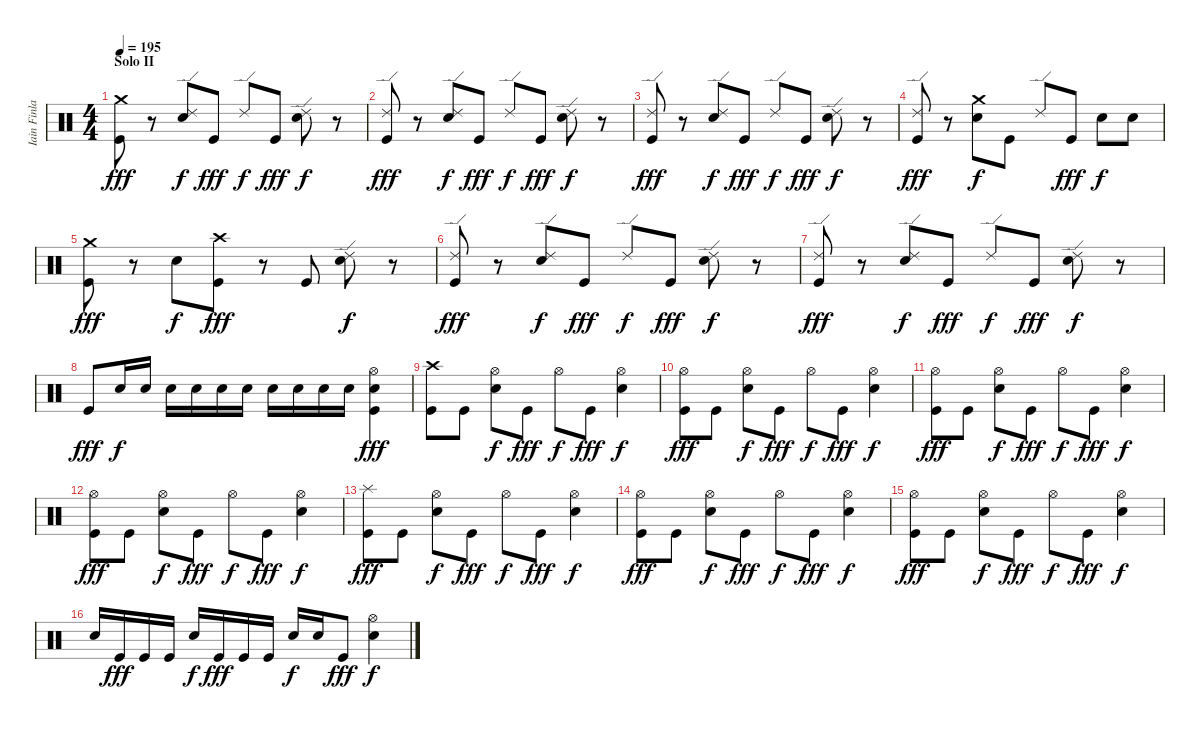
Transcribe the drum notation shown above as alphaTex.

\track ("Iain Finlay (Batería)" "Iain Finla") {instrument percussion}
\staff {score}
\articulation defaults
\ts (4 4)
\section ("" "Solo II")
\tempo 195
\clef neutral
\ks c
("Crash medium (hit)" "Kick (hit)").8{dy fff} r.8 ("Ride (edge) 2" "Electric Snare (hit)").8{dy f} "Kick (hit)".8{dy fff} "Ride (edge) 2".8{dy f} "Kick (hit)".8{dy fff} ("Ride (edge) 2" "Electric Snare (hit)").8{dy f} r.8 |
("Ride (edge) 2" "Kick (hit)").8{dy fff} r.8 ("Ride (edge) 2" "Electric Snare (hit)").8{dy f} "Kick (hit)".8{dy fff} "Ride (edge) 2".8{dy f} "Kick (hit)".8{dy fff} ("Ride (edge) 2" "Electric Snare (hit)").8{dy f} r.8 |
("Ride (edge) 2" "Kick (hit)").8{dy fff} r.8 ("Ride (edge) 2" "Electric Snare (hit)").8{dy f} "Kick (hit)".8{dy fff} "Ride (edge) 2".8{dy f} "Kick (hit)".8{dy fff} ("Ride (edge) 2" "Electric Snare (hit)").8{dy f} r.8 |
("Ride (edge) 2" "Kick (hit)").8{dy fff} r.8 ("Crash medium (hit)" "Electric Snare (hit)").8{dy f} "Kick (hit)".8 "Ride (edge) 2".8 "Kick (hit)".8{dy fff} "Electric Snare (hit)".8{dy f} "Electric Snare (hit)".8 |
("Crash medium (hit)" "Kick (hit)").8{dy fff} r.8 "Electric Snare (hit)".8{dy f} ("Crash high (hit)" "Kick (hit)").8{dy fff} r.8 "Kick (hit)".8 ("Ride (edge) 2" "Electric Snare (hit)").8{dy f} r.8 |
("Ride (edge) 2" "Kick (hit)").8{dy fff} r.8 ("Ride (edge) 2" "Electric Snare (hit)").8{dy f} "Kick (hit)".8{dy fff} "Ride (edge) 2".8{dy f} "Kick (hit)".8{dy fff} ("Ride (edge) 2" "Electric Snare (hit)").8{dy f} r.8 |
("Ride (edge) 2" "Kick (hit)").8{dy fff} r.8 ("Ride (edge) 2" "Electric Snare (hit)").8{dy f} "Kick (hit)".8{dy fff} "Ride (edge) 2".8{dy f} "Kick (hit)".8{dy fff} ("Ride (edge) 2" "Electric Snare (hit)").8{dy f} r.8 |
"Kick (hit)".8{dy fff} "Electric Snare (hit)".16{dy f} "Electric Snare (hit)".16 "Electric Snare (hit)".16 "Electric Snare (hit)".16 "Electric Snare (hit)".16 "Electric Snare (hit)".16 "Electric Snare (hit)".16 "Electric Snare (hit)".16 "Electric Snare (hit)".16 "Electric Snare (hit)".16 ("Hi-Hat (open)" "Electric Snare (hit)" "Kick (hit)").4{dy fff} |
("Crash high (hit)" "Kick (hit)").8 "Kick (hit)".8 ("Hi-Hat (open)" "Electric Snare (hit)").8{dy f} "Kick (hit)".8{dy fff} "Hi-Hat (open)".8{dy f} "Kick (hit)".8{dy fff} ("Hi-Hat (open)" "Electric Snare (hit)").4{dy f} |
("Hi-Hat (open)" "Kick (hit)").8{dy fff} "Kick (hit)".8 ("Hi-Hat (open)" "Electric Snare (hit)").8{dy f} "Kick (hit)".8{dy fff} "Hi-Hat (open)".8{dy f} "Kick (hit)".8{dy fff} ("Hi-Hat (open)" "Electric Snare (hit)").4{dy f} |
("Hi-Hat (open)" "Kick (hit)").8{dy fff} "Kick (hit)".8 ("Hi-Hat (open)" "Electric Snare (hit)").8{dy f} "Kick (hit)".8{dy fff} "Hi-Hat (open)".8{dy f} "Kick (hit)".8{dy fff} ("Hi-Hat (open)" "Electric Snare (hit)").4{dy f} |
("Hi-Hat (open)" "Kick (hit)").8{dy fff} "Kick (hit)".8 ("Hi-Hat (open)" "Electric Snare (hit)").8{dy f} "Kick (hit)".8{dy fff} "Hi-Hat (open)".8{dy f} "Kick (hit)".8{dy fff} ("Hi-Hat (open)" "Electric Snare (hit)").4{dy f} |
("Splash (hit)" "Kick (hit)").8{dy fff} "Kick (hit)".8 ("Hi-Hat (open)" "Electric Snare (hit)").8{dy f} "Kick (hit)".8{dy fff} "Hi-Hat (open)".8{dy f} "Kick (hit)".8{dy fff} ("Hi-Hat (open)" "Electric Snare (hit)").4{dy f} |
("Hi-Hat (open)" "Kick (hit)").8{dy fff} "Kick (hit)".8 ("Hi-Hat (open)" "Electric Snare (hit)").8{dy f} "Kick (hit)".8{dy fff} "Hi-Hat (open)".8{dy f} "Kick (hit)".8{dy fff} ("Hi-Hat (open)" "Electric Snare (hit)").4{dy f} |
("Hi-Hat (open)" "Kick (hit)").8{dy fff} "Kick (hit)".8 ("Hi-Hat (open)" "Electric Snare (hit)").8{dy f} "Kick (hit)".8{dy fff} "Hi-Hat (open)".8{dy f} "Kick (hit)".8{dy fff} ("Hi-Hat (open)" "Electric Snare (hit)").4{dy f} |
"Electric Snare (hit)".16 "Kick (hit)".16{dy fff} "Kick (hit)".16 "Kick (hit)".16 "Electric Snare (hit)".16{dy f} "Kick (hit)".16{dy fff} "Kick (hit)".16 "Kick (hit)".16 "Electric Snare (hit)".16{dy f} "Electric Snare (hit)".16 "Kick (hit)".8{dy fff} ("Hi-Hat (open)" "Electric Snare (hit)").4{dy f}
